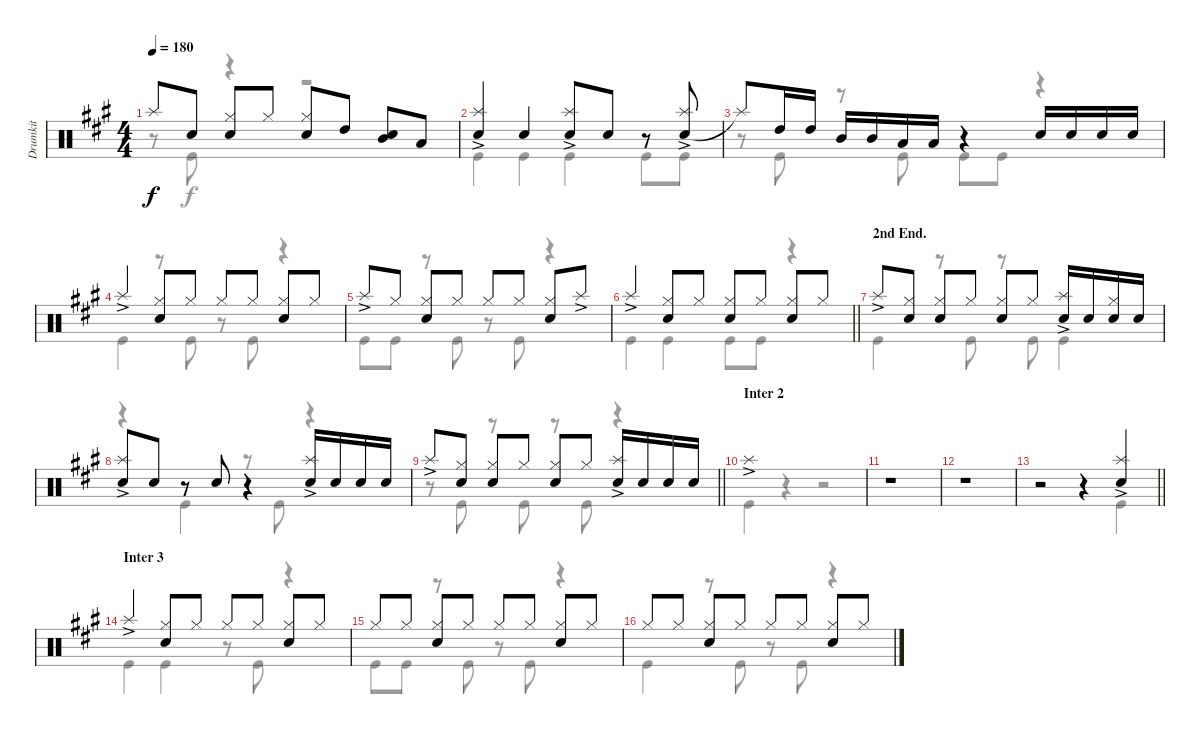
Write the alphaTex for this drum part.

\track ("Drumkit" "Drumkit") {instrument percussion}
\staff {score}
\articulation defaults
\voice
\ts (4 4)
\tempo 180
\clef neutral
\ks a "Splash (hit)"{t}.8{dy f} "Snare (hit) 2".8
("Snare (hit) 2" "Hi-Hat (closed)").8 "Hi-Hat (closed)".8 ("Hi-Hat (closed)" "Snare (hit) 2").8 "High Tom (hit)".8 ("Mid Tom (hit)" "Snare (hit) 2").8 "Low Tom (hit)".8 |
("Snare (hit) 2" "Splash (hit)"{ac}).4 "Snare (hit) 2".4 ("Snare (hit) 2" "Splash (hit)"{ac}).8 "Snare (hit) 2".8 r.8 ("Snare (hit) 2" "Splash (hit)"{ac}).8 |
"Splash (hit)"{t}.8 "High Tom (hit)".16 "High Tom (hit)".16 "Mid Tom (hit)".16 "Mid Tom (hit)".16 "Low Tom (hit)".16 "Low Tom (hit)".16 r.4 "Snare (hit) 2".16 "Snare (hit) 2".16 "Snare (hit) 2".16 "Snare (hit) 2".16 |
"Splash (hit)"{ac}.4 ("Hi-Hat (closed)" "Snare (hit) 2").8 "Hi-Hat (closed)".8 "Hi-Hat (closed)".8 "Hi-Hat (closed)".8 ("Hi-Hat (closed)" "Snare (hit) 2").8 "Hi-Hat (closed)".8 |
"Splash (hit)"{ac}.8 "Hi-Hat (closed)".8 ("Hi-Hat (closed)" "Snare (hit) 2").8 "Hi-Hat (closed)".8 "Hi-Hat (closed)".8 "Hi-Hat (closed)".8 ("Hi-Hat (closed)" "Snare (hit) 2").8 "Splash (hit)"{ac}.8 |
\barLineRight lightlight "Splash (hit)"{ac}.4
("Hi-Hat (closed)" "Snare (hit) 2").8 "Hi-Hat (closed)".8 ("Hi-Hat (closed)" "Snare (hit) 2").8 "Hi-Hat (closed)".8 ("Hi-Hat (closed)" "Snare (hit) 2").8 "Hi-Hat (closed)".8 |
\section ("" "2nd End.")
"Splash (hit)"{ac}.8 ("Hi-Hat (closed)" "Snare (hit) 2").8 ("Hi-Hat (closed)" "Snare (hit) 2").8 "Hi-Hat (closed)".8 ("Hi-Hat (closed)" "Snare (hit) 2").8 "Hi-Hat (closed)".8 ("Splash (hit)"{ac} "Snare (hit) 2").16 "Snare (hit) 2".16 ("Snare (hit) 2" "Hi-Hat (closed)").16 "Snare (hit) 2".16 |
("Splash (hit)"{ac} "Snare (hit) 2").8 "Snare (hit) 2".8 r.8 "Snare (hit) 2".8 r.4 ("Snare (hit) 2" "Splash (hit)"{ac}).16 "Snare (hit) 2".16 "Snare (hit) 2".16 "Snare (hit) 2".16 |
\barLineRight lightlight "Splash (hit)"{ac}.8
("Hi-Hat (closed)" "Snare (hit) 2").8 ("Hi-Hat (closed)" "Snare (hit) 2").8 "Hi-Hat (closed)".8 ("Hi-Hat (closed)" "Snare (hit) 2").8 "Hi-Hat (closed)".8 ("Splash (hit)"{ac} "Snare (hit) 2").16 "Snare (hit) 2".16 "Snare (hit) 2".16 "Snare (hit) 2".16 |
\section ("" "Inter 2")
"Splash (hit)"{ac}.1 |
r.1 |
r.1 |
\barLineRight lightlight
r.2 r.4 ("Snare (hit) 2" "Splash (hit)"{ac}).4 |
\section ("" "Inter 3")
"Splash (hit)"{ac}.4 ("Hi-Hat (closed)" "Snare (hit) 2").8 "Hi-Hat (closed)".8 "Hi-Hat (closed)".8 "Hi-Hat (closed)".8 ("Hi-Hat (closed)" "Snare (hit) 2").8 "Hi-Hat (closed)".8 |
"Hi-Hat (closed)".8 "Hi-Hat (closed)".8 ("Hi-Hat (closed)" "Snare (hit) 2").8 "Hi-Hat (closed)".8 "Hi-Hat (closed)".8 "Hi-Hat (closed)".8 ("Hi-Hat (closed)" "Snare (hit) 2").8 "Hi-Hat (closed)".8 |
"Hi-Hat (closed)".8 "Hi-Hat (closed)".8 ("Hi-Hat (closed)" "Snare (hit) 2").8 "Hi-Hat (closed)".8 "Hi-Hat (closed)".8 "Hi-Hat (closed)".8 ("Hi-Hat (closed)" "Snare (hit) 2").8 "Hi-Hat (closed)".8
\voice
\clef neutral
\ottava regular
\simile none
\ks a
r.8{dy f} "Kick (hit)".8 r.4 r.2 |
"Kick (hit)".4 "Kick (hit)".4 "Kick (hit)".4 "Kick (hit)".8 "Kick (hit)".8 |
r.8 "Kick (hit)".8 r.8 "Kick (hit)".8 "Kick (hit)".8 "Kick (hit)".8 r.4 |
"Kick (hit)".4 r.8 "Kick (hit)".8 r.8 "Kick (hit)".8 r.4 |
"Kick (hit)".8 "Kick (hit)".8 r.8 "Kick (hit)".8 r.8 "Kick (hit)".8 r.4 |
\barLineRight lightlight "Kick (hit)".4 "Kick (hit)".4 "Kick (hit)".8 "Kick (hit)".8
r.4 |
"Kick (hit)".4 r.8 "Kick (hit)".8 r.8 "Kick (hit)".8 "Kick (hit)".4 |
r.4 "Kick (hit)".4 r.8 "Kick (hit)".8 r.4 |
\barLineRight lightlight
r.8 "Kick (hit)".8 r.8 "Kick (hit)".8 r.8 "Kick (hit)".8 r.4 |
"Kick (hit)".4 r.4 r.2 |
r.1 |
r.1 |
\barLineRight lightlight
r.2 r.4 "Kick (hit)".4 |
"Kick (hit)".4 "Kick (hit)".4 r.8 "Kick (hit)".8 r.4 |
"Kick (hit)".8 "Kick (hit)".8 r.8 "Kick (hit)".8 r.8 "Kick (hit)".8 r.4 |
"Kick (hit)".4 r.8 "Kick (hit)".8 r.8 "Kick (hit)".8 r.4
